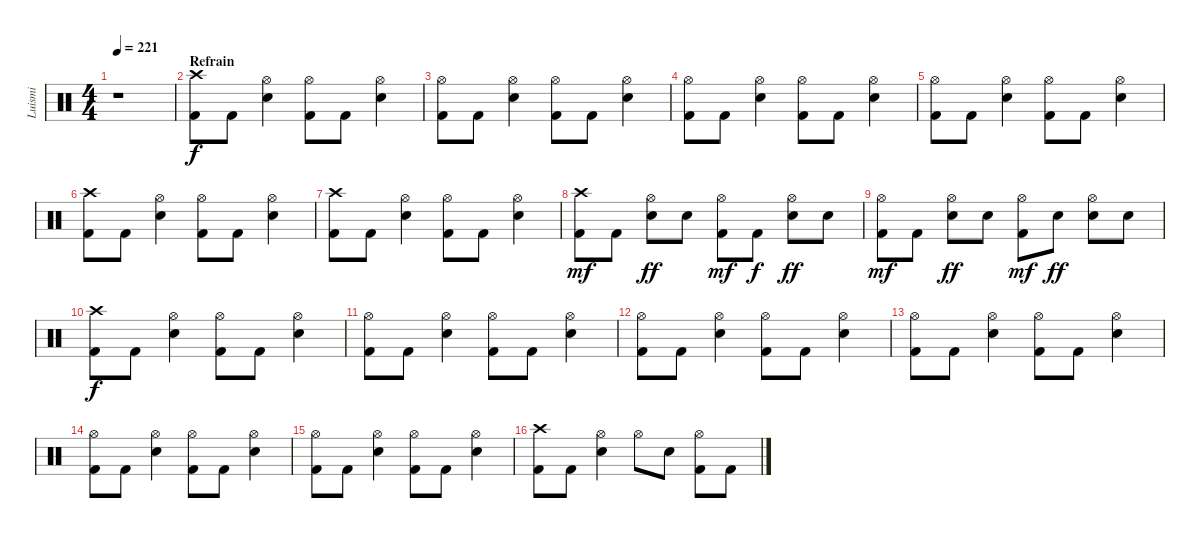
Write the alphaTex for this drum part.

\track ("Luismi" "Luismi") {instrument percussion}
\staff {score}
\articulation defaults
\ts (4 4)
\tempo 221
\clef neutral
\ks c
r.1{dy f} |
\section ("" "Refrain")
("Crash high (hit)" "Kick (hit) 2").8 "Kick (hit) 2".8 ("Hi-Hat (open)" "Snare (hit) 2").4 ("Hi-Hat (open)" "Kick (hit) 2").8 "Kick (hit) 2".8 ("Hi-Hat (open)" "Snare (hit) 2").4 |
("Hi-Hat (open)" "Kick (hit) 2").8 "Kick (hit) 2".8 ("Hi-Hat (open)" "Snare (hit) 2").4 ("Hi-Hat (open)" "Kick (hit) 2").8 "Kick (hit) 2".8 ("Hi-Hat (open)" "Snare (hit) 2").4 |
("Hi-Hat (open)" "Kick (hit) 2").8 "Kick (hit) 2".8 ("Hi-Hat (open)" "Snare (hit) 2").4 ("Hi-Hat (open)" "Kick (hit) 2").8 "Kick (hit) 2".8 ("Hi-Hat (open)" "Snare (hit) 2").4 |
("Hi-Hat (open)" "Kick (hit) 2").8 "Kick (hit) 2".8 ("Hi-Hat (open)" "Snare (hit) 2").4 ("Hi-Hat (open)" "Kick (hit) 2").8 "Kick (hit) 2".8 ("Hi-Hat (open)" "Snare (hit) 2").4 |
("Crash high (hit)" "Kick (hit) 2").8 "Kick (hit) 2".8 ("Hi-Hat (open)" "Snare (hit) 2").4 ("Hi-Hat (open)" "Kick (hit) 2").8 "Kick (hit) 2".8 ("Hi-Hat (open)" "Snare (hit) 2").4 |
("Crash high (hit)" "Kick (hit) 2").8 "Kick (hit) 2".8 ("Hi-Hat (open)" "Snare (hit) 2").4 ("Hi-Hat (open)" "Kick (hit) 2").8 "Kick (hit) 2".8 ("Hi-Hat (open)" "Snare (hit) 2").4 |
("Crash high (hit)" "Kick (hit) 2").8{dy mf} "Kick (hit) 2".8 ("Hi-Hat (open)" "Snare (hit) 2").8{dy ff} "Snare (hit) 2".8 ("Hi-Hat (open)" "Kick (hit) 2").8{dy mf} "Kick (hit) 2".8{dy f} ("Hi-Hat (open)" "Snare (hit) 2").8{dy ff} "Snare (hit) 2".8 |
("Hi-Hat (open)" "Kick (hit) 2").8{dy mf} "Kick (hit) 2".8 ("Hi-Hat (open)" "Snare (hit) 2").8{dy ff} "Snare (hit) 2".8 ("Hi-Hat (open)" "Kick (hit) 2").8{dy mf} "Snare (hit) 2".8{dy ff} ("Hi-Hat (open)" "Snare (hit) 2").8 "Snare (hit) 2".8 |
("Crash high (hit)" "Kick (hit) 2").8{dy f} "Kick (hit) 2".8 ("Hi-Hat (open)" "Snare (hit) 2").4 ("Hi-Hat (open)" "Kick (hit) 2").8 "Kick (hit) 2".8 ("Hi-Hat (open)" "Snare (hit) 2").4 |
("Hi-Hat (open)" "Kick (hit) 2").8 "Kick (hit) 2".8 ("Hi-Hat (open)" "Snare (hit) 2").4 ("Hi-Hat (open)" "Kick (hit) 2").8 "Kick (hit) 2".8 ("Hi-Hat (open)" "Snare (hit) 2").4 |
("Hi-Hat (open)" "Kick (hit) 2").8 "Kick (hit) 2".8 ("Hi-Hat (open)" "Snare (hit) 2").4 ("Hi-Hat (open)" "Kick (hit) 2").8 "Kick (hit) 2".8 ("Hi-Hat (open)" "Snare (hit) 2").4 |
("Hi-Hat (open)" "Kick (hit) 2").8 "Kick (hit) 2".8 ("Hi-Hat (open)" "Snare (hit) 2").4 ("Hi-Hat (open)" "Kick (hit) 2").8 "Kick (hit) 2".8 ("Hi-Hat (open)" "Snare (hit) 2").4 |
("Hi-Hat (open)" "Kick (hit) 2").8 "Kick (hit) 2".8 ("Hi-Hat (open)" "Snare (hit) 2").4 ("Hi-Hat (open)" "Kick (hit) 2").8 "Kick (hit) 2".8 ("Hi-Hat (open)" "Snare (hit) 2").4 |
("Hi-Hat (open)" "Kick (hit) 2").8 "Kick (hit) 2".8 ("Hi-Hat (open)" "Snare (hit) 2").4 ("Hi-Hat (open)" "Kick (hit) 2").8 "Kick (hit) 2".8 ("Hi-Hat (open)" "Snare (hit) 2").4 |
("Crash high (hit)" "Kick (hit) 2").8 "Kick (hit) 2".8 ("Hi-Hat (open)" "Snare (hit) 2").4 "Hi-Hat (open)".8 "Snare (hit) 2".8 ("Hi-Hat (open)" "Kick (hit) 2").8 "Kick (hit) 2".8
